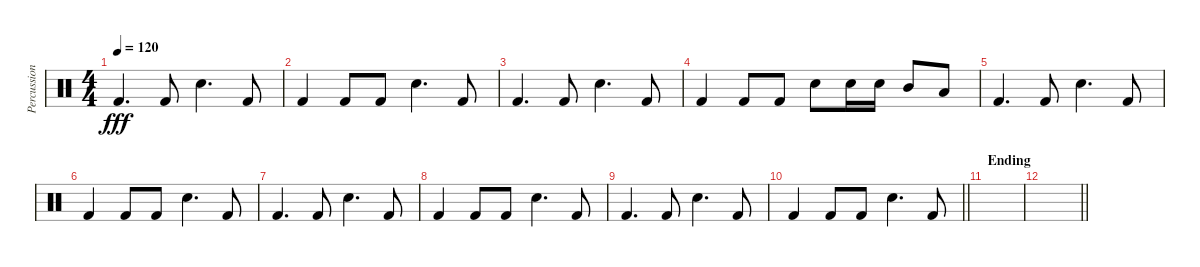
\track ("Percussion 1" "Percussion") {instrument percussion}
\staff {score}
\articulation defaults
\ts (4 4)
\tempo 120
\clef neutral
\ks c "Kick (hit) 2".4{d dy fff} "Kick (hit) 2".8 "Electric Snare (hit)".4{d} "Kick (hit) 2".8
|
"Kick (hit) 2".4 "Kick (hit) 2".8 "Kick (hit) 2".8 "Electric Snare (hit)".4{d} "Kick (hit) 2".8 |
"Kick (hit) 2".4{d} "Kick (hit) 2".8 "Electric Snare (hit)".4{d} "Kick (hit) 2".8 |
"Kick (hit) 2".4 "Kick (hit) 2".8 "Kick (hit) 2".8 "Electric Snare (hit)".8 "Electric Snare (hit)".16 "Electric Snare (hit)".16 "Mid Tom (hit)".8 "Low Tom (hit)".8 |
"Kick (hit) 2".4{d} "Kick (hit) 2".8 "Electric Snare (hit)".4{d} "Kick (hit) 2".8 |
"Kick (hit) 2".4 "Kick (hit) 2".8 "Kick (hit) 2".8 "Electric Snare (hit)".4{d} "Kick (hit) 2".8 |
"Kick (hit) 2".4{d} "Kick (hit) 2".8 "Electric Snare (hit)".4{d} "Kick (hit) 2".8 |
"Kick (hit) 2".4 "Kick (hit) 2".8 "Kick (hit) 2".8 "Electric Snare (hit)".4{d} "Kick (hit) 2".8 |
"Kick (hit) 2".4{d} "Kick (hit) 2".8 "Electric Snare (hit)".4{d} "Kick (hit) 2".8 |
\barLineRight lightlight "Kick (hit) 2".4 "Kick (hit) 2".8 "Kick (hit) 2".8 "Electric Snare (hit)".4{d} "Kick (hit) 2".8
|
\section ("" "Ending")
|
\barLineRight lightlight
